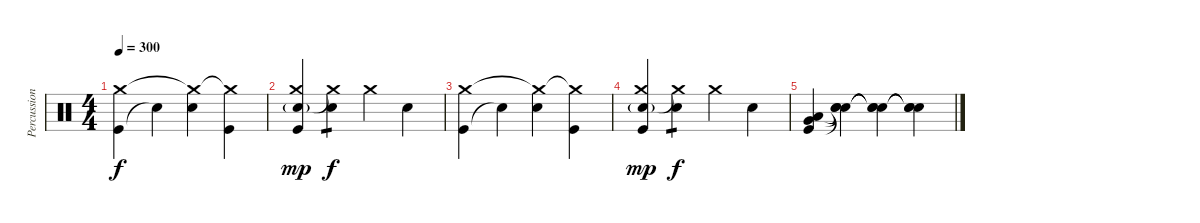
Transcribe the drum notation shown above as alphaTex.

\track ("Percussion" "Percussion") {instrument percussion}
\staff {score}
\articulation defaults
\ts (4 4)
\tempo 300
\clef neutral
\ks c
("Kick (hit)" "Crash medium (hit)").4{dy f} "Snare (hit)"{t}.4 ("Electric Snare (hit)" "Crash medium (hit)"{t}).4 ("Kick (hit)" "Crash medium (hit)"{t}).4 |
("Kick (hit)" "Electric Snare (hit)"{g} "Crash medium (hit)").4{dy mp} ("Electric Snare (hit)" "Crash medium (hit)"{t}).4{tp 1 dy f} "Crash medium (hit)".4 "Electric Snare (hit)".4 |
("Kick (hit)" "Crash medium (hit)").4 "Snare (hit)"{t}.4 ("Electric Snare (hit)" "Crash medium (hit)"{t}).4 ("Kick (hit)" "Crash medium (hit)"{t}).4 |
("Kick (hit)" "Electric Snare (hit)"{g} "Crash medium (hit)").4{dy mp} ("Electric Snare (hit)" "Crash medium (hit)"{t}).4{tp 1 dy f} "Crash medium (hit)".4 "Electric Snare (hit)".4 |
("Kick (hit)" "Low Floor Tom (hit)" "Very Low Tom (hit)").4 ("Snare (hit)"{t} "Snare (hit)"{t} "Snare (hit)"{t}).4 ("Snare (hit)"{t} "Snare (hit)"{t} "Snare (hit)"{t}).4 ("Snare (hit)"{t} "Snare (hit)"{t} "Snare (hit)"{t}).4
